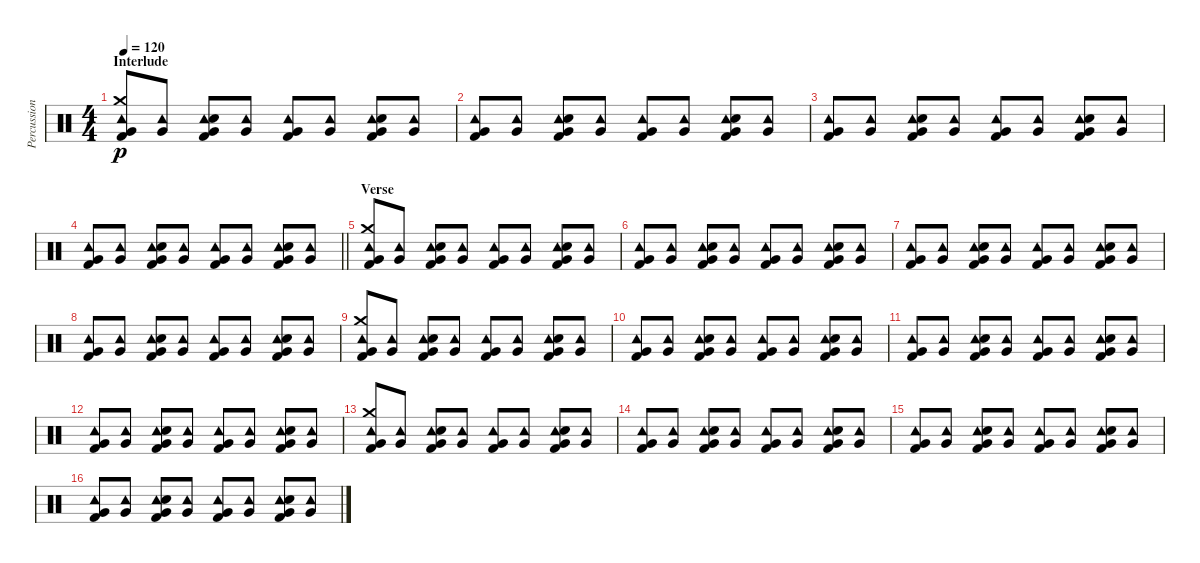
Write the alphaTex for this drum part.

\track ("Percussion" "Percussion") {instrument percussion}
\staff {score}
\articulation defaults
\ts (4 4)
\section ("" "Interlude")
\tempo 120
\clef neutral
\ks c
("Tambourine (hit)" "Crash medium (hit)" "Very Low Tom (hit)" "Kick (hit) 2").8{dy p} ("Tambourine (hit)" "Very Low Tom (hit)").8 ("Tambourine (hit)" "Very Low Tom (hit)" "Snare (hit) 2" "Kick (hit) 2").8 ("Tambourine (hit)" "Very Low Tom (hit)").8 ("Tambourine (hit)" "Very Low Tom (hit)" "Kick (hit) 2").8 ("Tambourine (hit)" "Very Low Tom (hit)").8 ("Tambourine (hit)" "Very Low Tom (hit)" "Snare (hit) 2" "Kick (hit) 2").8 ("Tambourine (hit)" "Very Low Tom (hit)").8 |
("Tambourine (hit)" "Very Low Tom (hit)" "Kick (hit) 2").8 ("Tambourine (hit)" "Very Low Tom (hit)").8 ("Tambourine (hit)" "Very Low Tom (hit)" "Snare (hit) 2" "Kick (hit) 2").8 ("Tambourine (hit)" "Very Low Tom (hit)").8 ("Tambourine (hit)" "Very Low Tom (hit)" "Kick (hit) 2").8 ("Tambourine (hit)" "Very Low Tom (hit)").8 ("Tambourine (hit)" "Very Low Tom (hit)" "Snare (hit) 2" "Kick (hit) 2").8 ("Tambourine (hit)" "Very Low Tom (hit)").8 |
("Tambourine (hit)" "Very Low Tom (hit)" "Kick (hit) 2").8 ("Tambourine (hit)" "Very Low Tom (hit)").8 ("Tambourine (hit)" "Very Low Tom (hit)" "Snare (hit) 2" "Kick (hit) 2").8 ("Tambourine (hit)" "Very Low Tom (hit)").8 ("Tambourine (hit)" "Very Low Tom (hit)" "Kick (hit) 2").8 ("Tambourine (hit)" "Very Low Tom (hit)").8 ("Tambourine (hit)" "Very Low Tom (hit)" "Snare (hit) 2" "Kick (hit) 2").8 ("Tambourine (hit)" "Very Low Tom (hit)").8 |
\barLineRight lightlight
("Tambourine (hit)" "Very Low Tom (hit)" "Kick (hit) 2").8 ("Tambourine (hit)" "Very Low Tom (hit)").8 ("Tambourine (hit)" "Very Low Tom (hit)" "Snare (hit) 2" "Kick (hit) 2").8 ("Tambourine (hit)" "Very Low Tom (hit)").8 ("Tambourine (hit)" "Very Low Tom (hit)" "Kick (hit) 2").8 ("Tambourine (hit)" "Very Low Tom (hit)").8 ("Tambourine (hit)" "Very Low Tom (hit)" "Snare (hit) 2" "Kick (hit) 2").8 ("Tambourine (hit)" "Very Low Tom (hit)").8 |
\section ("" "Verse")
("Tambourine (hit)" "Crash medium (hit)" "Very Low Tom (hit)" "Kick (hit) 2").8 ("Tambourine (hit)" "Very Low Tom (hit)").8 ("Tambourine (hit)" "Very Low Tom (hit)" "Snare (hit) 2" "Kick (hit) 2").8 ("Tambourine (hit)" "Very Low Tom (hit)").8 ("Tambourine (hit)" "Very Low Tom (hit)" "Kick (hit) 2").8 ("Tambourine (hit)" "Very Low Tom (hit)").8 ("Tambourine (hit)" "Very Low Tom (hit)" "Snare (hit) 2" "Kick (hit) 2").8 ("Tambourine (hit)" "Very Low Tom (hit)").8 |
("Tambourine (hit)" "Very Low Tom (hit)" "Kick (hit) 2").8 ("Tambourine (hit)" "Very Low Tom (hit)").8 ("Tambourine (hit)" "Very Low Tom (hit)" "Snare (hit) 2" "Kick (hit) 2").8 ("Tambourine (hit)" "Very Low Tom (hit)").8 ("Tambourine (hit)" "Very Low Tom (hit)" "Kick (hit) 2").8 ("Tambourine (hit)" "Very Low Tom (hit)").8 ("Tambourine (hit)" "Very Low Tom (hit)" "Snare (hit) 2" "Kick (hit) 2").8 ("Tambourine (hit)" "Very Low Tom (hit)").8 |
("Tambourine (hit)" "Very Low Tom (hit)" "Kick (hit) 2").8 ("Tambourine (hit)" "Very Low Tom (hit)").8 ("Tambourine (hit)" "Very Low Tom (hit)" "Snare (hit) 2" "Kick (hit) 2").8 ("Tambourine (hit)" "Very Low Tom (hit)").8 ("Tambourine (hit)" "Very Low Tom (hit)" "Kick (hit) 2").8 ("Tambourine (hit)" "Very Low Tom (hit)").8 ("Tambourine (hit)" "Very Low Tom (hit)" "Snare (hit) 2" "Kick (hit) 2").8 ("Tambourine (hit)" "Very Low Tom (hit)").8 |
("Tambourine (hit)" "Very Low Tom (hit)" "Kick (hit) 2").8 ("Tambourine (hit)" "Very Low Tom (hit)").8 ("Tambourine (hit)" "Very Low Tom (hit)" "Snare (hit) 2" "Kick (hit) 2").8 ("Tambourine (hit)" "Very Low Tom (hit)").8 ("Tambourine (hit)" "Very Low Tom (hit)" "Kick (hit) 2").8 ("Tambourine (hit)" "Very Low Tom (hit)").8 ("Tambourine (hit)" "Very Low Tom (hit)" "Snare (hit) 2" "Kick (hit) 2").8 ("Tambourine (hit)" "Very Low Tom (hit)").8 |
("Tambourine (hit)" "Crash medium (hit)" "Very Low Tom (hit)" "Kick (hit) 2").8 ("Tambourine (hit)" "Very Low Tom (hit)").8 ("Tambourine (hit)" "Very Low Tom (hit)" "Snare (hit) 2" "Kick (hit) 2").8 ("Tambourine (hit)" "Very Low Tom (hit)").8 ("Tambourine (hit)" "Very Low Tom (hit)" "Kick (hit) 2").8 ("Tambourine (hit)" "Very Low Tom (hit)").8 ("Tambourine (hit)" "Very Low Tom (hit)" "Snare (hit) 2" "Kick (hit) 2").8 ("Tambourine (hit)" "Very Low Tom (hit)").8 |
("Tambourine (hit)" "Very Low Tom (hit)" "Kick (hit) 2").8 ("Tambourine (hit)" "Very Low Tom (hit)").8 ("Tambourine (hit)" "Very Low Tom (hit)" "Snare (hit) 2" "Kick (hit) 2").8 ("Tambourine (hit)" "Very Low Tom (hit)").8 ("Tambourine (hit)" "Very Low Tom (hit)" "Kick (hit) 2").8 ("Tambourine (hit)" "Very Low Tom (hit)").8 ("Tambourine (hit)" "Very Low Tom (hit)" "Snare (hit) 2" "Kick (hit) 2").8 ("Tambourine (hit)" "Very Low Tom (hit)").8 |
("Tambourine (hit)" "Very Low Tom (hit)" "Kick (hit) 2").8 ("Tambourine (hit)" "Very Low Tom (hit)").8 ("Tambourine (hit)" "Very Low Tom (hit)" "Snare (hit) 2" "Kick (hit) 2").8 ("Tambourine (hit)" "Very Low Tom (hit)").8 ("Tambourine (hit)" "Very Low Tom (hit)" "Kick (hit) 2").8 ("Tambourine (hit)" "Very Low Tom (hit)").8 ("Tambourine (hit)" "Very Low Tom (hit)" "Snare (hit) 2" "Kick (hit) 2").8 ("Tambourine (hit)" "Very Low Tom (hit)").8 |
("Tambourine (hit)" "Very Low Tom (hit)" "Kick (hit) 2").8 ("Tambourine (hit)" "Very Low Tom (hit)").8 ("Tambourine (hit)" "Very Low Tom (hit)" "Snare (hit) 2" "Kick (hit) 2").8 ("Tambourine (hit)" "Very Low Tom (hit)").8 ("Tambourine (hit)" "Very Low Tom (hit)" "Kick (hit) 2").8 ("Tambourine (hit)" "Very Low Tom (hit)").8 ("Tambourine (hit)" "Very Low Tom (hit)" "Snare (hit) 2" "Kick (hit) 2").8 ("Tambourine (hit)" "Very Low Tom (hit)").8 |
("Tambourine (hit)" "Crash medium (hit)" "Very Low Tom (hit)" "Kick (hit) 2").8 ("Tambourine (hit)" "Very Low Tom (hit)").8 ("Tambourine (hit)" "Very Low Tom (hit)" "Snare (hit) 2" "Kick (hit) 2").8 ("Tambourine (hit)" "Very Low Tom (hit)").8 ("Tambourine (hit)" "Very Low Tom (hit)" "Kick (hit) 2").8 ("Tambourine (hit)" "Very Low Tom (hit)").8 ("Tambourine (hit)" "Very Low Tom (hit)" "Snare (hit) 2" "Kick (hit) 2").8 ("Tambourine (hit)" "Very Low Tom (hit)").8 |
("Tambourine (hit)" "Very Low Tom (hit)" "Kick (hit) 2").8 ("Tambourine (hit)" "Very Low Tom (hit)").8 ("Tambourine (hit)" "Very Low Tom (hit)" "Snare (hit) 2" "Kick (hit) 2").8 ("Tambourine (hit)" "Very Low Tom (hit)").8 ("Tambourine (hit)" "Very Low Tom (hit)" "Kick (hit) 2").8 ("Tambourine (hit)" "Very Low Tom (hit)").8 ("Tambourine (hit)" "Very Low Tom (hit)" "Snare (hit) 2" "Kick (hit) 2").8 ("Tambourine (hit)" "Very Low Tom (hit)").8 |
("Tambourine (hit)" "Very Low Tom (hit)" "Kick (hit) 2").8 ("Tambourine (hit)" "Very Low Tom (hit)").8 ("Tambourine (hit)" "Very Low Tom (hit)" "Snare (hit) 2" "Kick (hit) 2").8 ("Tambourine (hit)" "Very Low Tom (hit)").8 ("Tambourine (hit)" "Very Low Tom (hit)" "Kick (hit) 2").8 ("Tambourine (hit)" "Very Low Tom (hit)").8 ("Tambourine (hit)" "Very Low Tom (hit)" "Snare (hit) 2" "Kick (hit) 2").8 ("Tambourine (hit)" "Very Low Tom (hit)").8 |
("Tambourine (hit)" "Very Low Tom (hit)" "Kick (hit) 2").8 ("Tambourine (hit)" "Very Low Tom (hit)").8 ("Tambourine (hit)" "Very Low Tom (hit)" "Snare (hit) 2" "Kick (hit) 2").8 ("Tambourine (hit)" "Very Low Tom (hit)").8 ("Tambourine (hit)" "Very Low Tom (hit)" "Kick (hit) 2").8 ("Tambourine (hit)" "Very Low Tom (hit)").8 ("Tambourine (hit)" "Very Low Tom (hit)" "Snare (hit) 2" "Kick (hit) 2").8 ("Tambourine (hit)" "Very Low Tom (hit)").8
